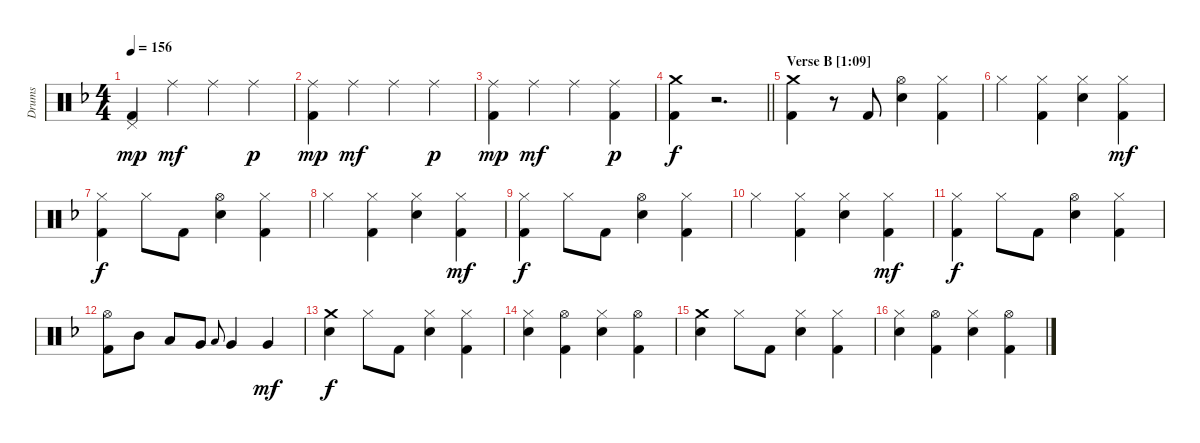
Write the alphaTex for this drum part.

\track ("Drums" "Drums") {instrument percussion}
\staff {score}
\articulation defaults
\ts (4 4)
\tempo 156
\clef neutral
\ks dminor
("Pedal Hi-Hat (hit)" "Kick (hit) 2").4{dy mp} "Ride (middle)".4{dy mf} "Ride (middle)".4 "Ride (middle)".4{dy p} |
("Ride (middle)" "Kick (hit) 2").4{dy mp} "Ride (middle)".4{dy mf} "Ride (middle)".4 "Ride (middle)".4{dy p} |
("Ride (middle)" "Kick (hit) 2").4{dy mp} "Ride (middle)".4{dy mf} "Ride (middle)".4 ("Ride (middle)" "Kick (hit) 2").4{dy p} |
\barLineRight lightlight
("Crash medium (hit)" "Kick (hit) 2").4{dy f} r.2{d} |
\section ("" "Verse B [1:09]")
("Crash medium (hit)" "Kick (hit) 2").4 r.8 "Kick (hit) 2".8 ("Hi-Hat (open)" "Snare (hit) 2").4 ("Hi-Hat (closed)" "Kick (hit) 2").4 |
"Hi-Hat (closed)".4 ("Hi-Hat (closed)" "Kick (hit) 2").4 ("Hi-Hat (closed)" "Snare (hit) 2").4 ("Hi-Hat (closed)" "Kick (hit) 2").4{dy mf} |
("Hi-Hat (closed)" "Kick (hit) 2").4{dy f} "Hi-Hat (closed)".8 "Kick (hit) 2".8 ("Hi-Hat (open)" "Snare (hit) 2").4 ("Hi-Hat (closed)" "Kick (hit) 2").4 |
"Hi-Hat (closed)".4 ("Hi-Hat (closed)" "Kick (hit) 2").4 ("Hi-Hat (closed)" "Snare (hit) 2").4 ("Hi-Hat (closed)" "Kick (hit) 2").4{dy mf} |
("Hi-Hat (closed)" "Kick (hit) 2").4{dy f} "Hi-Hat (closed)".8 "Kick (hit) 2".8 ("Hi-Hat (open)" "Snare (hit) 2").4 ("Hi-Hat (closed)" "Kick (hit) 2").4 |
"Hi-Hat (closed)".4 ("Hi-Hat (closed)" "Kick (hit) 2").4 ("Hi-Hat (closed)" "Snare (hit) 2").4 ("Hi-Hat (closed)" "Kick (hit) 2").4{dy mf} |
("Hi-Hat (closed)" "Kick (hit) 2").4{dy f} "Hi-Hat (closed)".8 "Kick (hit) 2".8 ("Hi-Hat (open)" "Snare (hit) 2").4 ("Hi-Hat (closed)" "Kick (hit) 2").4 |
("Hi-Hat (open)" "Kick (hit) 2").8 "Mid Tom (hit)".8 "Low Tom (hit)".8 "Very Low Tom (hit)".8 "Low Floor Tom (hit)".8{gr onbeat} "Very Low Tom (hit)".4 "Very Low Tom (hit)".4{dy mf} |
("Crash medium (hit)" "Snare (hit) 2").4{dy f} "Hi-Hat (closed)".8 "Kick (hit) 2".8 ("Hi-Hat (closed)" "Snare (hit) 2").4 ("Hi-Hat (closed)" "Kick (hit) 2").4 |
("Hi-Hat (closed)" "Snare (hit) 2").4 ("Hi-Hat (open)" "Kick (hit) 2").4 ("Hi-Hat (closed)" "Snare (hit) 2").4 ("Hi-Hat (open)" "Kick (hit) 2").4 |
("Crash medium (hit)" "Snare (hit) 2").4 "Hi-Hat (closed)".8 "Kick (hit) 2".8 ("Hi-Hat (closed)" "Snare (hit) 2").4 ("Hi-Hat (closed)" "Kick (hit) 2").4 |
("Hi-Hat (closed)" "Snare (hit) 2").4 ("Hi-Hat (open)" "Kick (hit) 2").4 ("Hi-Hat (closed)" "Snare (hit) 2").4 ("Hi-Hat (open)" "Kick (hit) 2").4
